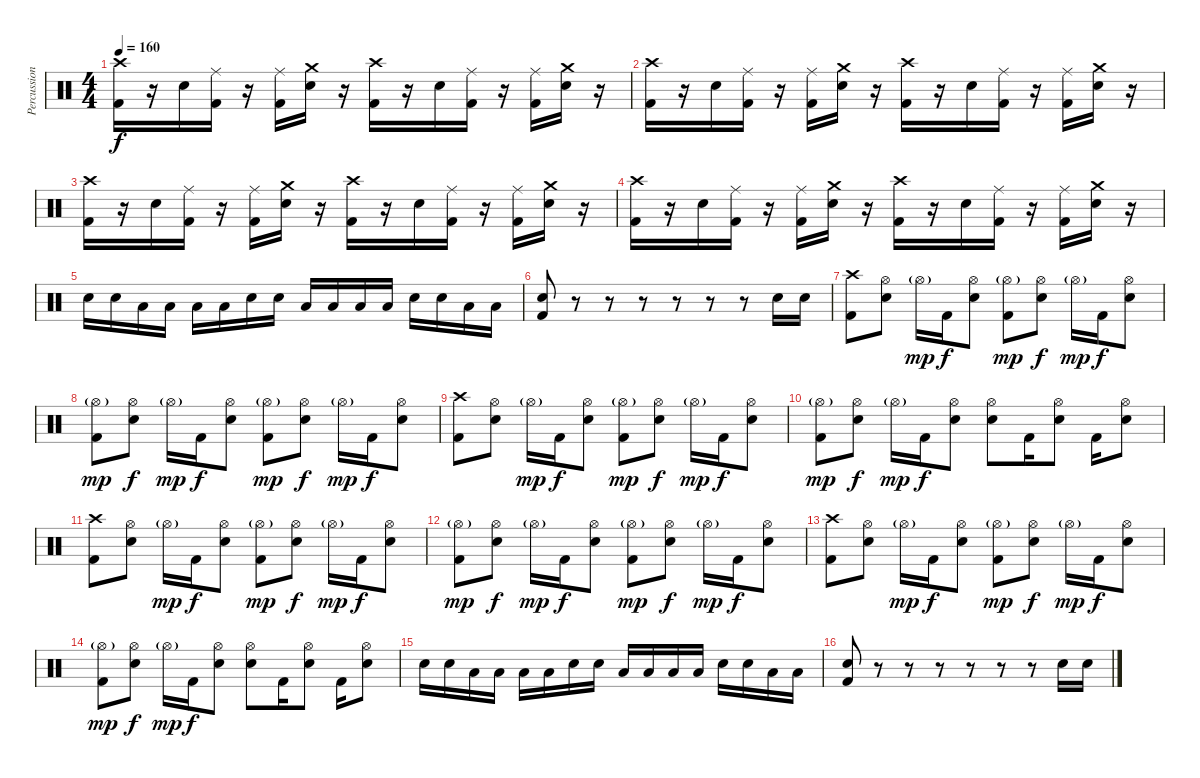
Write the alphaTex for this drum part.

\track ("Percussion" "Percussion") {instrument percussion}
\staff {score}
\articulation defaults
\ts (4 4)
\tempo 160
\clef neutral
\ks c
("Crash high (hit)" "Kick (hit) 2").16{dy f} r.16 "Electric Snare (hit)".16 ("Ride (middle)" "Kick (hit) 2").16 r.16 ("Ride (middle)" "Kick (hit) 2").16 ("Crash medium (hit)" "Electric Snare (hit)").16 r.16 ("Crash high (hit)" "Kick (hit) 2").16 r.16 "Electric Snare (hit)".16 ("Ride (middle)" "Kick (hit) 2").16 r.16 ("Ride (middle)" "Kick (hit) 2").16 ("Crash medium (hit)" "Electric Snare (hit)").16 r.16 |
("Crash high (hit)" "Kick (hit) 2").16 r.16 "Electric Snare (hit)".16 ("Ride (middle)" "Kick (hit) 2").16 r.16 ("Ride (middle)" "Kick (hit) 2").16 ("Crash medium (hit)" "Electric Snare (hit)").16 r.16 ("Crash high (hit)" "Kick (hit) 2").16 r.16 "Electric Snare (hit)".16 ("Ride (middle)" "Kick (hit) 2").16 r.16 ("Ride (middle)" "Kick (hit) 2").16 ("Crash medium (hit)" "Electric Snare (hit)").16 r.16 |
("Crash high (hit)" "Kick (hit) 2").16 r.16 "Electric Snare (hit)".16 ("Ride (middle)" "Kick (hit) 2").16 r.16 ("Ride (middle)" "Kick (hit) 2").16 ("Crash medium (hit)" "Electric Snare (hit)").16 r.16 ("Crash high (hit)" "Kick (hit) 2").16 r.16 "Electric Snare (hit)".16 ("Ride (middle)" "Kick (hit) 2").16 r.16 ("Ride (middle)" "Kick (hit) 2").16 ("Crash medium (hit)" "Electric Snare (hit)").16 r.16 |
("Crash high (hit)" "Kick (hit) 2").16 r.16 "Electric Snare (hit)".16 ("Ride (middle)" "Kick (hit) 2").16 r.16 ("Ride (middle)" "Kick (hit) 2").16 ("Crash medium (hit)" "Electric Snare (hit)").16 r.16 ("Crash high (hit)" "Kick (hit) 2").16 r.16 "Electric Snare (hit)".16 ("Ride (middle)" "Kick (hit) 2").16 r.16 ("Ride (middle)" "Kick (hit) 2").16 ("Crash medium (hit)" "Electric Snare (hit)").16 r.16 |
"Electric Snare (hit)".16 "Electric Snare (hit)".16 "Low Tom (hit)".16 "Low Tom (hit)".16 "Low Tom (hit)".16 "Low Tom (hit)".16 "Electric Snare (hit)".16 "Electric Snare (hit)".16 "Low Tom (hit)".16 "Low Tom (hit)".16 "Low Tom (hit)".16 "Low Tom (hit)".16 "Electric Snare (hit)".16 "Electric Snare (hit)".16 "Low Tom (hit)".16 "Low Tom (hit)".16 |
("Electric Snare (hit)" "Kick (hit) 2").8 r.8 r.8 r.8 r.8 r.8 r.8 "Electric Snare (hit)".16 "Electric Snare (hit)".16 |
("Crash high (hit)" "Kick (hit) 2").8 ("Hi-Hat (open)" "Electric Snare (hit)").8 "Hi-Hat (open)"{g}.16{dy mp} "Kick (hit) 2".16{dy f} ("Hi-Hat (open)" "Electric Snare (hit)").8 ("Hi-Hat (open)"{g} "Kick (hit) 2").8{dy mp} ("Hi-Hat (open)" "Electric Snare (hit)").8{dy f} "Hi-Hat (open)"{g}.16{dy mp} "Kick (hit) 2".16{dy f} ("Hi-Hat (open)" "Electric Snare (hit)").8 |
("Hi-Hat (open)"{g} "Kick (hit) 2").8{dy mp} ("Hi-Hat (open)" "Electric Snare (hit)").8{dy f} "Hi-Hat (open)"{g}.16{dy mp} "Kick (hit) 2".16{dy f} ("Hi-Hat (open)" "Electric Snare (hit)").8 ("Hi-Hat (open)"{g} "Kick (hit) 2").8{dy mp} ("Hi-Hat (open)" "Electric Snare (hit)").8{dy f} "Hi-Hat (open)"{g}.16{dy mp} "Kick (hit) 2".16{dy f} ("Hi-Hat (open)" "Electric Snare (hit)").8 |
("Crash high (hit)" "Kick (hit) 2").8 ("Hi-Hat (open)" "Electric Snare (hit)").8 "Hi-Hat (open)"{g}.16{dy mp} "Kick (hit) 2".16{dy f} ("Hi-Hat (open)" "Electric Snare (hit)").8 ("Hi-Hat (open)"{g} "Kick (hit) 2").8{dy mp} ("Hi-Hat (open)" "Electric Snare (hit)").8{dy f} "Hi-Hat (open)"{g}.16{dy mp} "Kick (hit) 2".16{dy f} ("Hi-Hat (open)" "Electric Snare (hit)").8 |
("Hi-Hat (open)"{g} "Kick (hit) 2").8{dy mp} ("Hi-Hat (open)" "Electric Snare (hit)").8{dy f} "Hi-Hat (open)"{g}.16{dy mp} "Kick (hit) 2".16{dy f} ("Hi-Hat (open)" "Electric Snare (hit)").8 ("Hi-Hat (open)" "Electric Snare (hit)").8 "Kick (hit) 2".16 ("Hi-Hat (open)" "Electric Snare (hit)").8 "Kick (hit) 2".16 ("Hi-Hat (open)" "Electric Snare (hit)").8 |
("Crash high (hit)" "Kick (hit) 2").8 ("Hi-Hat (open)" "Electric Snare (hit)").8 "Hi-Hat (open)"{g}.16{dy mp} "Kick (hit) 2".16{dy f} ("Hi-Hat (open)" "Electric Snare (hit)").8 ("Hi-Hat (open)"{g} "Kick (hit) 2").8{dy mp} ("Hi-Hat (open)" "Electric Snare (hit)").8{dy f} "Hi-Hat (open)"{g}.16{dy mp} "Kick (hit) 2".16{dy f} ("Hi-Hat (open)" "Electric Snare (hit)").8 |
("Hi-Hat (open)"{g} "Kick (hit) 2").8{dy mp} ("Hi-Hat (open)" "Electric Snare (hit)").8{dy f} "Hi-Hat (open)"{g}.16{dy mp} "Kick (hit) 2".16{dy f} ("Hi-Hat (open)" "Electric Snare (hit)").8 ("Hi-Hat (open)"{g} "Kick (hit) 2").8{dy mp} ("Hi-Hat (open)" "Electric Snare (hit)").8{dy f} "Hi-Hat (open)"{g}.16{dy mp} "Kick (hit) 2".16{dy f} ("Hi-Hat (open)" "Electric Snare (hit)").8 |
("Crash high (hit)" "Kick (hit) 2").8 ("Hi-Hat (open)" "Electric Snare (hit)").8 "Hi-Hat (open)"{g}.16{dy mp} "Kick (hit) 2".16{dy f} ("Hi-Hat (open)" "Electric Snare (hit)").8 ("Hi-Hat (open)"{g} "Kick (hit) 2").8{dy mp} ("Hi-Hat (open)" "Electric Snare (hit)").8{dy f} "Hi-Hat (open)"{g}.16{dy mp} "Kick (hit) 2".16{dy f} ("Hi-Hat (open)" "Electric Snare (hit)").8 |
("Hi-Hat (open)"{g} "Kick (hit) 2").8{dy mp} ("Hi-Hat (open)" "Electric Snare (hit)").8{dy f} "Hi-Hat (open)"{g}.16{dy mp} "Kick (hit) 2".16{dy f} ("Hi-Hat (open)" "Electric Snare (hit)").8 ("Hi-Hat (open)" "Electric Snare (hit)").8 "Kick (hit) 2".16 ("Hi-Hat (open)" "Electric Snare (hit)").8 "Kick (hit) 2".16 ("Hi-Hat (open)" "Electric Snare (hit)").8 |
"Electric Snare (hit)".16 "Electric Snare (hit)".16 "Low Tom (hit)".16 "Low Tom (hit)".16 "Low Tom (hit)".16 "Low Tom (hit)".16 "Electric Snare (hit)".16 "Electric Snare (hit)".16 "Low Tom (hit)".16 "Low Tom (hit)".16 "Low Tom (hit)".16 "Low Tom (hit)".16 "Electric Snare (hit)".16 "Electric Snare (hit)".16 "Low Tom (hit)".16 "Low Tom (hit)".16 |
("Electric Snare (hit)" "Kick (hit) 2").8 r.8 r.8 r.8 r.8 r.8 r.8 "Electric Snare (hit)".16 "Electric Snare (hit)".16
